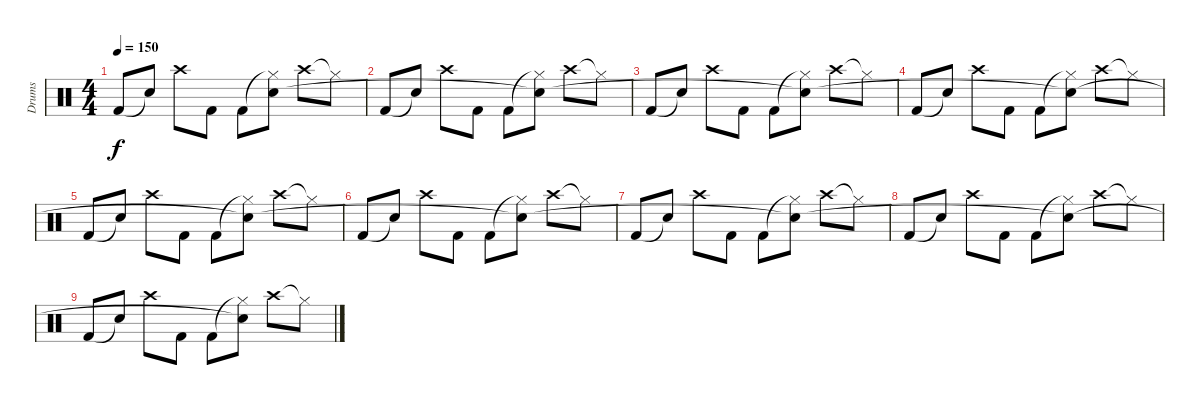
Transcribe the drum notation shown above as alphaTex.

\track ("Drums" "Drums") {instrument percussion}
\staff {score}
\articulation defaults
\ts (4 4)
\tempo 150
\clef neutral
\ks c "Kick (hit) 2".8{dy f} "Snare (hit)"{t}.8 "Crash high (hit)".8 "Kick (hit) 2".8 "Kick (hit) 2".8
("Hi-Hat (closed)"{t} "Snare (hit)"{t}).8 "Crash high (hit)".8 "Hi-Hat (closed)"{t}.8 |
"Kick (hit) 2".8 "Snare (hit)"{t}.8 "Crash high (hit)".8 "Kick (hit) 2".8 "Kick (hit) 2".8 ("Hi-Hat (closed)"{t} "Snare (hit)"{t}).8 "Crash high (hit)".8 "Hi-Hat (closed)"{t}.8 |
"Kick (hit) 2".8 "Snare (hit)"{t}.8 "Crash high (hit)".8 "Kick (hit) 2".8 "Kick (hit) 2".8 ("Hi-Hat (closed)"{t} "Snare (hit)"{t}).8 "Crash high (hit)".8 "Hi-Hat (closed)"{t}.8 |
"Kick (hit) 2".8 "Snare (hit)"{t}.8 "Crash high (hit)".8 "Kick (hit) 2".8 "Kick (hit) 2".8 ("Hi-Hat (closed)"{t} "Snare (hit)"{t}).8 "Crash high (hit)".8 "Hi-Hat (closed)"{t}.8 |
"Kick (hit) 2".8 "Snare (hit)"{t}.8 "Crash high (hit)".8 "Kick (hit) 2".8 "Kick (hit) 2".8 ("Hi-Hat (closed)"{t} "Snare (hit)"{t}).8 "Crash high (hit)".8 "Hi-Hat (closed)"{t}.8 |
"Kick (hit) 2".8 "Snare (hit)"{t}.8 "Crash high (hit)".8 "Kick (hit) 2".8 "Kick (hit) 2".8 ("Hi-Hat (closed)"{t} "Snare (hit)"{t}).8 "Crash high (hit)".8 "Hi-Hat (closed)"{t}.8 |
"Kick (hit) 2".8 "Snare (hit)"{t}.8 "Crash high (hit)".8 "Kick (hit) 2".8 "Kick (hit) 2".8 ("Hi-Hat (closed)"{t} "Snare (hit)"{t}).8 "Crash high (hit)".8 "Hi-Hat (closed)"{t}.8 |
"Kick (hit) 2".8 "Snare (hit)"{t}.8 "Crash high (hit)".8 "Kick (hit) 2".8 "Kick (hit) 2".8 ("Hi-Hat (closed)"{t} "Snare (hit)"{t}).8 "Crash high (hit)".8 "Hi-Hat (closed)"{t}.8 |
"Kick (hit) 2".8 "Snare (hit)"{t}.8 "Crash high (hit)".8 "Kick (hit) 2".8 "Kick (hit) 2".8 ("Hi-Hat (closed)"{t} "Snare (hit)"{t}).8 "Crash high (hit)".8 "Hi-Hat (closed)"{t}.8
